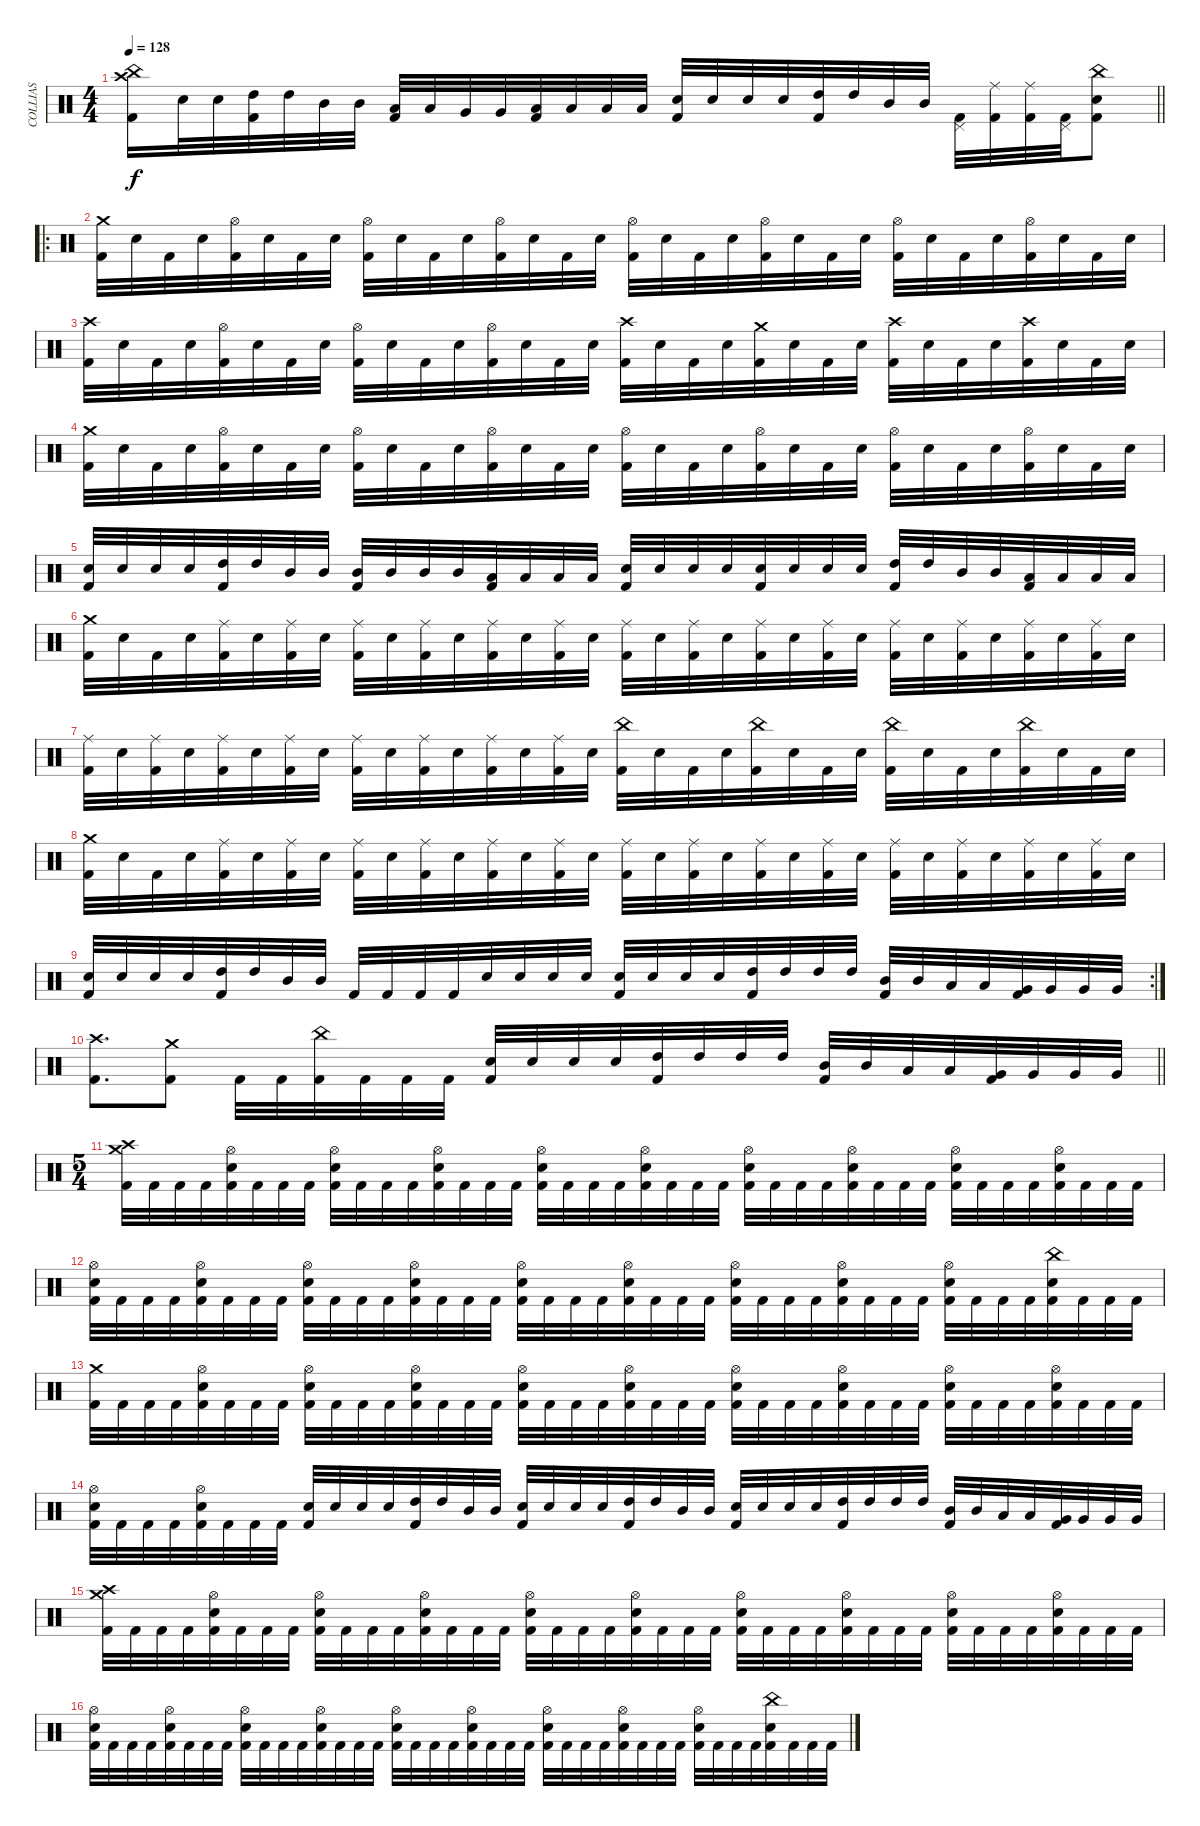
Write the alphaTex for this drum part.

\track ("COLLIAS" "COLLIAS") {instrument percussion}
\staff
\articulation defaults
\ts (4 4)
\tempo 128
\clef neutral
\barLineRight lightlight
\ks c
("China (hit)" "Crash high (hit)" "Kick (hit) 2").16{dy f} "Electric Snare (hit)".32 "Electric Snare (hit)".32 ("High Tom (hit)" "Kick (hit) 2").32 "High Tom (hit)".32 "Mid Tom (hit)".32 "Mid Tom (hit)".32 ("Low Tom (hit)" "Kick (hit) 2").32 "Low Tom (hit)".32 "Very Low Tom (hit)".32 "Very Low Tom (hit)".32 ("Low Floor Tom (hit)" "Kick (hit) 2").32 "Low Floor Tom (hit)".32 "Low Floor Tom (hit)".32 "Low Floor Tom (hit)".32 ("Electric Snare (hit)" "Kick (hit) 2").32 "Electric Snare (hit)".32 "Electric Snare (hit)".32 "Electric Snare (hit)".32 ("High Tom (hit)" "Kick (hit) 2").32 "High Tom (hit)".32 "Mid Tom (hit)".32 "Mid Tom (hit)".32 ("Pedal Hi-Hat (hit)" "Kick (hit) 2").32 ("Ride (middle)" "Kick (hit) 2").32 ("Ride (middle)" "Kick (hit) 2").32 ("Pedal Hi-Hat (hit)" "Kick (hit) 2").32 ("China (hit)" "Electric Snare (hit)" "Kick (hit) 2").8 |
\ro
("Crash medium (hit)" "Kick (hit) 2").32 "Electric Snare (hit)".32 "Kick (hit) 2".32 "Electric Snare (hit)".32 ("Hi-Hat (open)" "Kick (hit) 2").32 "Electric Snare (hit)".32 "Kick (hit) 2".32 "Electric Snare (hit)".32 ("Hi-Hat (open)" "Kick (hit) 2").32 "Electric Snare (hit)".32 "Kick (hit) 2".32 "Electric Snare (hit)".32 ("Hi-Hat (open)" "Kick (hit) 2").32 "Electric Snare (hit)".32 "Kick (hit) 2".32 "Electric Snare (hit)".32 ("Hi-Hat (open)" "Kick (hit) 2").32 "Electric Snare (hit)".32 "Kick (hit) 2".32 "Electric Snare (hit)".32 ("Hi-Hat (open)" "Kick (hit) 2").32 "Electric Snare (hit)".32 "Kick (hit) 2".32 "Electric Snare (hit)".32 ("Hi-Hat (open)" "Kick (hit) 2").32 "Electric Snare (hit)".32 "Kick (hit) 2".32 "Electric Snare (hit)".32 ("Hi-Hat (open)" "Kick (hit) 2").32 "Electric Snare (hit)".32 "Kick (hit) 2".32 "Electric Snare (hit)".32 |
("Crash high (hit)" "Kick (hit) 2").32 "Electric Snare (hit)".32 "Kick (hit) 2".32 "Electric Snare (hit)".32 ("Hi-Hat (open)" "Kick (hit) 2").32 "Electric Snare (hit)".32 "Kick (hit) 2".32 "Electric Snare (hit)".32 ("Hi-Hat (open)" "Kick (hit) 2").32 "Electric Snare (hit)".32 "Kick (hit) 2".32 "Electric Snare (hit)".32 ("Hi-Hat (open)" "Kick (hit) 2").32 "Electric Snare (hit)".32 "Kick (hit) 2".32 "Electric Snare (hit)".32 ("Crash high (hit)" "Kick (hit) 2").32 "Electric Snare (hit)".32 "Kick (hit) 2".32 "Electric Snare (hit)".32 ("Crash medium (hit)" "Kick (hit) 2").32 "Electric Snare (hit)".32 "Kick (hit) 2".32 "Electric Snare (hit)".32 ("Crash high (hit)" "Kick (hit) 2").32 "Electric Snare (hit)".32 "Kick (hit) 2".32 "Electric Snare (hit)".32 ("Crash high (hit)" "Kick (hit) 2").32 "Electric Snare (hit)".32 "Kick (hit) 2".32 "Electric Snare (hit)".32 |
("Crash medium (hit)" "Kick (hit) 2").32 "Electric Snare (hit)".32 "Kick (hit) 2".32 "Electric Snare (hit)".32 ("Hi-Hat (open)" "Kick (hit) 2").32 "Electric Snare (hit)".32 "Kick (hit) 2".32 "Electric Snare (hit)".32 ("Hi-Hat (open)" "Kick (hit) 2").32 "Electric Snare (hit)".32 "Kick (hit) 2".32 "Electric Snare (hit)".32 ("Hi-Hat (open)" "Kick (hit) 2").32 "Electric Snare (hit)".32 "Kick (hit) 2".32 "Electric Snare (hit)".32 ("Hi-Hat (open)" "Kick (hit) 2").32 "Electric Snare (hit)".32 "Kick (hit) 2".32 "Electric Snare (hit)".32 ("Hi-Hat (open)" "Kick (hit) 2").32 "Electric Snare (hit)".32 "Kick (hit) 2".32 "Electric Snare (hit)".32 ("Hi-Hat (open)" "Kick (hit) 2").32 "Electric Snare (hit)".32 "Kick (hit) 2".32 "Electric Snare (hit)".32 ("Hi-Hat (open)" "Kick (hit) 2").32 "Electric Snare (hit)".32 "Kick (hit) 2".32 "Electric Snare (hit)".32 |
("Electric Snare (hit)" "Kick (hit) 2").32 "Electric Snare (hit)".32 "Electric Snare (hit)".32 "Electric Snare (hit)".32 ("High Tom (hit)" "Kick (hit) 2").32 "High Tom (hit)".32 "Mid Tom (hit)".32 "Mid Tom (hit)".32 ("Mid Tom (hit)" "Kick (hit) 2").32 "Mid Tom (hit)".32 "Mid Tom (hit)".32 "Mid Tom (hit)".32 ("Low Tom (hit)" "Kick (hit) 2").32 "Low Tom (hit)".32 "Low Tom (hit)".32 "Low Tom (hit)".32 ("Electric Snare (hit)" "Kick (hit) 2").32 "Electric Snare (hit)".32 "Electric Snare (hit)".32 "Electric Snare (hit)".32 ("Electric Snare (hit)" "Kick (hit) 2").32 "Electric Snare (hit)".32 "Electric Snare (hit)".32 "Electric Snare (hit)".32 ("High Tom (hit)" "Kick (hit) 2").32 "High Tom (hit)".32 "Mid Tom (hit)".32 "Mid Tom (hit)".32 ("Low Tom (hit)" "Kick (hit) 2").32 "Low Tom (hit)".32 "Low Tom (hit)".32 "Low Tom (hit)".32 |
("Crash medium (hit)" "Kick (hit) 2").32 "Electric Snare (hit)".32 "Kick (hit) 2".32 "Electric Snare (hit)".32 ("Ride (middle)" "Kick (hit) 2").32 "Electric Snare (hit)".32 ("Ride (middle)" "Kick (hit) 2").32 "Electric Snare (hit)".32 ("Ride (middle)" "Kick (hit) 2").32 "Electric Snare (hit)".32 ("Ride (middle)" "Kick (hit) 2").32 "Electric Snare (hit)".32 ("Ride (middle)" "Kick (hit) 2").32 "Electric Snare (hit)".32 ("Ride (middle)" "Kick (hit) 2").32 "Electric Snare (hit)".32 ("Ride (middle)" "Kick (hit) 2").32 "Electric Snare (hit)".32 ("Ride (middle)" "Kick (hit) 2").32 "Electric Snare (hit)".32 ("Ride (middle)" "Kick (hit) 2").32 "Electric Snare (hit)".32 ("Ride (middle)" "Kick (hit) 2").32 "Electric Snare (hit)".32 ("Ride (middle)" "Kick (hit) 2").32 "Electric Snare (hit)".32 ("Ride (middle)" "Kick (hit) 2").32 "Electric Snare (hit)".32 ("Ride (middle)" "Kick (hit) 2").32 "Electric Snare (hit)".32 ("Ride (middle)" "Kick (hit) 2").32 "Electric Snare (hit)".32 |
("Ride (middle)" "Kick (hit) 2").32 "Electric Snare (hit)".32 ("Ride (middle)" "Kick (hit) 2").32 "Electric Snare (hit)".32 ("Ride (middle)" "Kick (hit) 2").32 "Electric Snare (hit)".32 ("Ride (middle)" "Kick (hit) 2").32 "Electric Snare (hit)".32 ("Ride (middle)" "Kick (hit) 2").32 "Electric Snare (hit)".32 ("Ride (middle)" "Kick (hit) 2").32 "Electric Snare (hit)".32 ("Ride (middle)" "Kick (hit) 2").32 "Electric Snare (hit)".32 ("Ride (middle)" "Kick (hit) 2").32 "Electric Snare (hit)".32 ("China (hit)" "Kick (hit) 2").32 "Electric Snare (hit)".32 "Kick (hit) 2".32 "Electric Snare (hit)".32 ("China (hit)" "Kick (hit) 2").32 "Electric Snare (hit)".32 "Kick (hit) 2".32 "Electric Snare (hit)".32 ("China (hit)" "Kick (hit) 2").32 "Electric Snare (hit)".32 "Kick (hit) 2".32 "Electric Snare (hit)".32 ("China (hit)" "Kick (hit) 2").32 "Electric Snare (hit)".32 "Kick (hit) 2".32 "Electric Snare (hit)".32 |
("Crash medium (hit)" "Kick (hit) 2").32 "Electric Snare (hit)".32 "Kick (hit) 2".32 "Electric Snare (hit)".32 ("Ride (middle)" "Kick (hit) 2").32 "Electric Snare (hit)".32 ("Ride (middle)" "Kick (hit) 2").32 "Electric Snare (hit)".32 ("Ride (middle)" "Kick (hit) 2").32 "Electric Snare (hit)".32 ("Ride (middle)" "Kick (hit) 2").32 "Electric Snare (hit)".32 ("Ride (middle)" "Kick (hit) 2").32 "Electric Snare (hit)".32 ("Ride (middle)" "Kick (hit) 2").32 "Electric Snare (hit)".32 ("Ride (middle)" "Kick (hit) 2").32 "Electric Snare (hit)".32 ("Ride (middle)" "Kick (hit) 2").32 "Electric Snare (hit)".32 ("Ride (middle)" "Kick (hit) 2").32 "Electric Snare (hit)".32 ("Ride (middle)" "Kick (hit) 2").32 "Electric Snare (hit)".32 ("Ride (middle)" "Kick (hit) 2").32 "Electric Snare (hit)".32 ("Ride (middle)" "Kick (hit) 2").32 "Electric Snare (hit)".32 ("Ride (middle)" "Kick (hit) 2").32 "Electric Snare (hit)".32 ("Ride (middle)" "Kick (hit) 2").32 "Electric Snare (hit)".32 |
\rc 2
("Electric Snare (hit)" "Kick (hit) 2").32 "Electric Snare (hit)".32 "Electric Snare (hit)".32 "Electric Snare (hit)".32 ("High Tom (hit)" "Kick (hit) 2").32 "High Tom (hit)".32 "Mid Tom (hit)".32 "Mid Tom (hit)".32 "Kick (hit) 2".32 "Kick (hit) 2".32 "Kick (hit) 2".32 "Kick (hit) 2".32 "Electric Snare (hit)".32 "Electric Snare (hit)".32 "Electric Snare (hit)".32 "Electric Snare (hit)".32 ("Electric Snare (hit)" "Kick (hit) 2").32 "Electric Snare (hit)".32 "Electric Snare (hit)".32 "Electric Snare (hit)".32 ("High Tom (hit)" "Kick (hit) 2").32 "High Tom (hit)".32 "High Tom (hit)".32 "High Tom (hit)".32 ("Mid Tom (hit)" "Kick (hit) 2").32 "Mid Tom (hit)".32 "Low Tom (hit)".32 "Low Tom (hit)".32 ("Very Low Tom (hit)" "Kick (hit) 2").32 "Very Low Tom (hit)".32 "Very Low Tom (hit)".32 "Very Low Tom (hit)".32 |
\barLineRight lightlight
("Crash high (hit)" "Kick (hit) 2").8{d} ("Crash medium (hit)" "Kick (hit) 2").8 "Kick (hit) 2".32 "Kick (hit) 2".32 ("China (hit)" "Kick (hit) 2").32 "Kick (hit) 2".32 "Kick (hit) 2".32 "Kick (hit) 2".32 ("Electric Snare (hit)" "Kick (hit) 2").32 "Electric Snare (hit)".32 "Electric Snare (hit)".32 "Electric Snare (hit)".32 ("High Tom (hit)" "Kick (hit) 2").32 "High Tom (hit)".32 "High Tom (hit)".32 "High Tom (hit)".32 ("Mid Tom (hit)" "Kick (hit) 2").32 "Mid Tom (hit)".32 "Low Tom (hit)".32 "Low Tom (hit)".32 ("Very Low Tom (hit)" "Kick (hit) 2").32 "Very Low Tom (hit)".32 "Very Low Tom (hit)".32 "Very Low Tom (hit)".32 |
\ts (5 4)
("Crash medium (hit)" "Crash high (hit)" "Kick (hit) 2").32 "Kick (hit) 2".32 "Kick (hit) 2".32 "Kick (hit) 2".32 ("Hi-Hat (open)" "Electric Snare (hit)" "Kick (hit) 2").32 "Kick (hit) 2".32 "Kick (hit) 2".32 "Kick (hit) 2".32 ("Hi-Hat (open)" "Electric Snare (hit)" "Kick (hit) 2").32 "Kick (hit) 2".32 "Kick (hit) 2".32 "Kick (hit) 2".32 ("Hi-Hat (open)" "Electric Snare (hit)" "Kick (hit) 2").32 "Kick (hit) 2".32 "Kick (hit) 2".32 "Kick (hit) 2".32 ("Hi-Hat (open)" "Electric Snare (hit)" "Kick (hit) 2").32 "Kick (hit) 2".32 "Kick (hit) 2".32 "Kick (hit) 2".32 ("Hi-Hat (open)" "Electric Snare (hit)" "Kick (hit) 2").32 "Kick (hit) 2".32 "Kick (hit) 2".32 "Kick (hit) 2".32 ("Hi-Hat (open)" "Electric Snare (hit)" "Kick (hit) 2").32 "Kick (hit) 2".32 "Kick (hit) 2".32 "Kick (hit) 2".32 ("Hi-Hat (open)" "Electric Snare (hit)" "Kick (hit) 2").32 "Kick (hit) 2".32 "Kick (hit) 2".32 "Kick (hit) 2".32 ("Hi-Hat (open)" "Electric Snare (hit)" "Kick (hit) 2").32 "Kick (hit) 2".32 "Kick (hit) 2".32 "Kick (hit) 2".32 ("Hi-Hat (open)" "Electric Snare (hit)" "Kick (hit) 2").32 "Kick (hit) 2".32 "Kick (hit) 2".32 "Kick (hit) 2".32 |
("Hi-Hat (open)" "Electric Snare (hit)" "Kick (hit) 2").32 "Kick (hit) 2".32 "Kick (hit) 2".32 "Kick (hit) 2".32 ("Hi-Hat (open)" "Electric Snare (hit)" "Kick (hit) 2").32 "Kick (hit) 2".32 "Kick (hit) 2".32 "Kick (hit) 2".32 ("Hi-Hat (open)" "Electric Snare (hit)" "Kick (hit) 2").32 "Kick (hit) 2".32 "Kick (hit) 2".32 "Kick (hit) 2".32 ("Hi-Hat (open)" "Electric Snare (hit)" "Kick (hit) 2").32 "Kick (hit) 2".32 "Kick (hit) 2".32 "Kick (hit) 2".32 ("Hi-Hat (open)" "Electric Snare (hit)" "Kick (hit) 2").32 "Kick (hit) 2".32 "Kick (hit) 2".32 "Kick (hit) 2".32 ("Hi-Hat (open)" "Electric Snare (hit)" "Kick (hit) 2").32 "Kick (hit) 2".32 "Kick (hit) 2".32 "Kick (hit) 2".32 ("Hi-Hat (open)" "Electric Snare (hit)" "Kick (hit) 2").32 "Kick (hit) 2".32 "Kick (hit) 2".32 "Kick (hit) 2".32 ("Hi-Hat (open)" "Electric Snare (hit)" "Kick (hit) 2").32 "Kick (hit) 2".32 "Kick (hit) 2".32 "Kick (hit) 2".32 ("Hi-Hat (open)" "Electric Snare (hit)" "Kick (hit) 2").32 "Kick (hit) 2".32 "Kick (hit) 2".32 "Kick (hit) 2".32 ("China (hit)" "Electric Snare (hit)" "Kick (hit) 2").32 "Kick (hit) 2".32 "Kick (hit) 2".32 "Kick (hit) 2".32 |
("Crash medium (hit)" "Kick (hit) 2").32 "Kick (hit) 2".32 "Kick (hit) 2".32 "Kick (hit) 2".32 ("Hi-Hat (open)" "Electric Snare (hit)" "Kick (hit) 2").32 "Kick (hit) 2".32 "Kick (hit) 2".32 "Kick (hit) 2".32 ("Hi-Hat (open)" "Electric Snare (hit)" "Kick (hit) 2").32 "Kick (hit) 2".32 "Kick (hit) 2".32 "Kick (hit) 2".32 ("Hi-Hat (open)" "Electric Snare (hit)" "Kick (hit) 2").32 "Kick (hit) 2".32 "Kick (hit) 2".32 "Kick (hit) 2".32 ("Hi-Hat (open)" "Electric Snare (hit)" "Kick (hit) 2").32 "Kick (hit) 2".32 "Kick (hit) 2".32 "Kick (hit) 2".32 ("Hi-Hat (open)" "Electric Snare (hit)" "Kick (hit) 2").32 "Kick (hit) 2".32 "Kick (hit) 2".32 "Kick (hit) 2".32 ("Hi-Hat (open)" "Electric Snare (hit)" "Kick (hit) 2").32 "Kick (hit) 2".32 "Kick (hit) 2".32 "Kick (hit) 2".32 ("Hi-Hat (open)" "Electric Snare (hit)" "Kick (hit) 2").32 "Kick (hit) 2".32 "Kick (hit) 2".32 "Kick (hit) 2".32 ("Hi-Hat (open)" "Electric Snare (hit)" "Kick (hit) 2").32 "Kick (hit) 2".32 "Kick (hit) 2".32 "Kick (hit) 2".32 ("Hi-Hat (open)" "Electric Snare (hit)" "Kick (hit) 2").32 "Kick (hit) 2".32 "Kick (hit) 2".32 "Kick (hit) 2".32 |
("Hi-Hat (open)" "Electric Snare (hit)" "Kick (hit) 2").32 "Kick (hit) 2".32 "Kick (hit) 2".32 "Kick (hit) 2".32 ("Hi-Hat (open)" "Electric Snare (hit)" "Kick (hit) 2").32 "Kick (hit) 2".32 "Kick (hit) 2".32 "Kick (hit) 2".32 ("Electric Snare (hit)" "Kick (hit) 2").32 "Electric Snare (hit)".32 "Electric Snare (hit)".32 "Electric Snare (hit)".32 ("High Tom (hit)" "Kick (hit) 2").32 "High Tom (hit)".32 "Mid Tom (hit)".32 "Mid Tom (hit)".32 ("Electric Snare (hit)" "Kick (hit) 2").32 "Electric Snare (hit)".32 "Electric Snare (hit)".32 "Electric Snare (hit)".32 ("High Tom (hit)" "Kick (hit) 2").32 "High Tom (hit)".32 "Mid Tom (hit)".32 "Mid Tom (hit)".32 ("Electric Snare (hit)" "Kick (hit) 2").32 "Electric Snare (hit)".32 "Electric Snare (hit)".32 "Electric Snare (hit)".32 ("High Tom (hit)" "Kick (hit) 2").32 "High Tom (hit)".32 "High Tom (hit)".32 "High Tom (hit)".32 ("Mid Tom (hit)" "Kick (hit) 2").32 "Mid Tom (hit)".32 "Low Tom (hit)".32 "Low Tom (hit)".32 ("Very Low Tom (hit)" "Kick (hit) 2").32 "Very Low Tom (hit)".32 "Very Low Tom (hit)".32 "Very Low Tom (hit)".32 |
("Crash medium (hit)" "Crash high (hit)" "Kick (hit) 2").32 "Kick (hit) 2".32 "Kick (hit) 2".32 "Kick (hit) 2".32 ("Hi-Hat (open)" "Electric Snare (hit)" "Kick (hit) 2").32 "Kick (hit) 2".32 "Kick (hit) 2".32 "Kick (hit) 2".32 ("Hi-Hat (open)" "Electric Snare (hit)" "Kick (hit) 2").32 "Kick (hit) 2".32 "Kick (hit) 2".32 "Kick (hit) 2".32 ("Hi-Hat (open)" "Electric Snare (hit)" "Kick (hit) 2").32 "Kick (hit) 2".32 "Kick (hit) 2".32 "Kick (hit) 2".32 ("Hi-Hat (open)" "Electric Snare (hit)" "Kick (hit) 2").32 "Kick (hit) 2".32 "Kick (hit) 2".32 "Kick (hit) 2".32 ("Hi-Hat (open)" "Electric Snare (hit)" "Kick (hit) 2").32 "Kick (hit) 2".32 "Kick (hit) 2".32 "Kick (hit) 2".32 ("Hi-Hat (open)" "Electric Snare (hit)" "Kick (hit) 2").32 "Kick (hit) 2".32 "Kick (hit) 2".32 "Kick (hit) 2".32 ("Hi-Hat (open)" "Electric Snare (hit)" "Kick (hit) 2").32 "Kick (hit) 2".32 "Kick (hit) 2".32 "Kick (hit) 2".32 ("Hi-Hat (open)" "Electric Snare (hit)" "Kick (hit) 2").32 "Kick (hit) 2".32 "Kick (hit) 2".32 "Kick (hit) 2".32 ("Hi-Hat (open)" "Electric Snare (hit)" "Kick (hit) 2").32 "Kick (hit) 2".32 "Kick (hit) 2".32 "Kick (hit) 2".32 |
("Hi-Hat (open)" "Electric Snare (hit)" "Kick (hit) 2").32 "Kick (hit) 2".32 "Kick (hit) 2".32 "Kick (hit) 2".32 ("Hi-Hat (open)" "Electric Snare (hit)" "Kick (hit) 2").32 "Kick (hit) 2".32 "Kick (hit) 2".32 "Kick (hit) 2".32 ("Hi-Hat (open)" "Electric Snare (hit)" "Kick (hit) 2").32 "Kick (hit) 2".32 "Kick (hit) 2".32 "Kick (hit) 2".32 ("Hi-Hat (open)" "Electric Snare (hit)" "Kick (hit) 2").32 "Kick (hit) 2".32 "Kick (hit) 2".32 "Kick (hit) 2".32 ("Hi-Hat (open)" "Electric Snare (hit)" "Kick (hit) 2").32 "Kick (hit) 2".32 "Kick (hit) 2".32 "Kick (hit) 2".32 ("Hi-Hat (open)" "Electric Snare (hit)" "Kick (hit) 2").32 "Kick (hit) 2".32 "Kick (hit) 2".32 "Kick (hit) 2".32 ("Hi-Hat (open)" "Electric Snare (hit)" "Kick (hit) 2").32 "Kick (hit) 2".32 "Kick (hit) 2".32 "Kick (hit) 2".32 ("Hi-Hat (open)" "Electric Snare (hit)" "Kick (hit) 2").32 "Kick (hit) 2".32 "Kick (hit) 2".32 "Kick (hit) 2".32 ("Hi-Hat (open)" "Electric Snare (hit)" "Kick (hit) 2").32 "Kick (hit) 2".32 "Kick (hit) 2".32 "Kick (hit) 2".32 ("China (hit)" "Electric Snare (hit)" "Kick (hit) 2").32 "Kick (hit) 2".32 "Kick (hit) 2".32 "Kick (hit) 2".32
